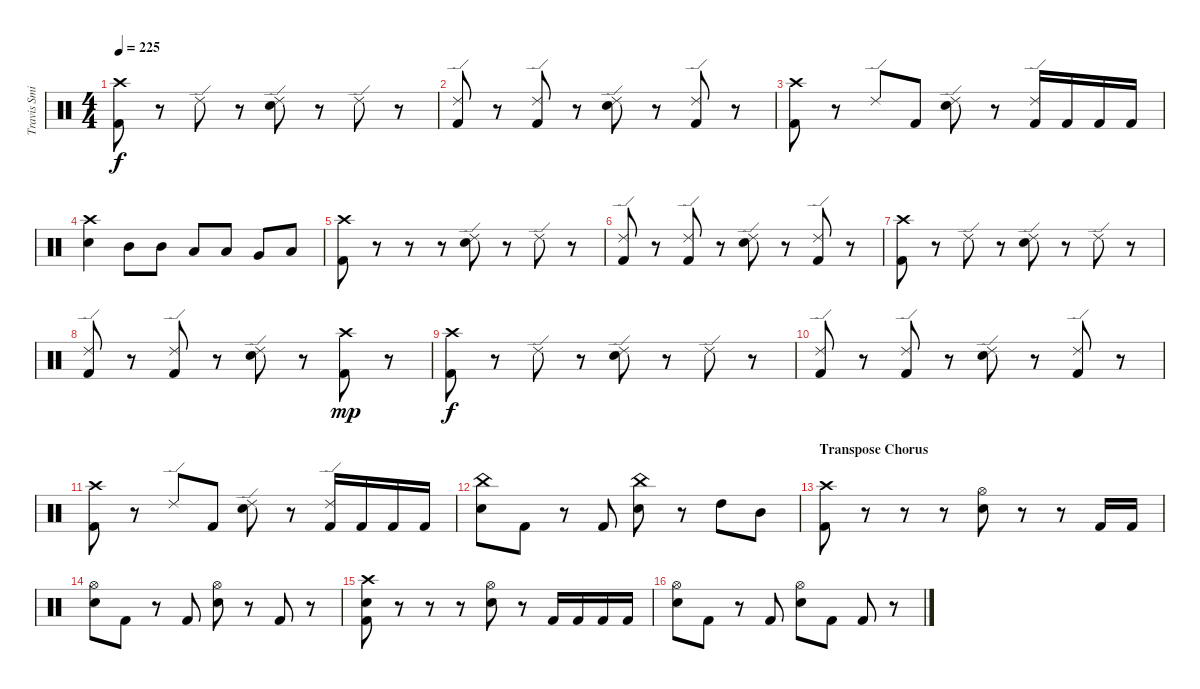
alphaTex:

\track ("Travis Smith" "Travis Smi") {instrument percussion}
\staff {score}
\articulation defaults
\ts (4 4)
\tempo 225
\clef neutral
\ks c
("Crash high (hit)" "Kick (hit) 2").8{dy f} r.8 "Ride (edge) 2".8 r.8 ("Ride (edge) 2" "Electric Snare (hit)").8 r.8 "Ride (edge) 2".8 r.8 |
("Ride (edge) 2" "Kick (hit) 2").8 r.8 ("Ride (edge) 2" "Kick (hit) 2").8 r.8 ("Ride (edge) 2" "Electric Snare (hit)").8 r.8 ("Ride (edge) 2" "Kick (hit) 2").8 r.8 |
("Crash high (hit)" "Kick (hit) 2").8 r.8 "Ride (edge) 2".8 "Kick (hit) 2".8 ("Ride (edge) 2" "Electric Snare (hit)").8 r.8 ("Ride (edge) 2" "Kick (hit) 2").16 "Kick (hit) 2".16 "Kick (hit) 2".16 "Kick (hit) 2".16 |
("Crash high (hit)" "Electric Snare (hit)").4 "Mid Tom (hit)".8 "Mid Tom (hit)".8 "Low Tom (hit)".8 "Low Tom (hit)".8 "Very Low Tom (hit)".8 "Low Floor Tom (hit)".8 |
("Crash high (hit)" "Kick (hit) 2").8 r.8 r.8 r.8 ("Ride (edge) 2" "Electric Snare (hit)").8 r.8 "Ride (edge) 2".8 r.8 |
("Ride (edge) 2" "Kick (hit) 2").8 r.8 ("Ride (edge) 2" "Kick (hit) 2").8 r.8 ("Ride (edge) 2" "Electric Snare (hit)").8 r.8 ("Ride (edge) 2" "Kick (hit) 2").8 r.8 |
("Crash high (hit)" "Kick (hit) 2").8 r.8 "Ride (edge) 2".8 r.8 ("Ride (edge) 2" "Electric Snare (hit)").8 r.8 "Ride (edge) 2".8 r.8 |
("Ride (edge) 2" "Kick (hit) 2").8 r.8 ("Ride (edge) 2" "Kick (hit) 2").8 r.8 ("Ride (edge) 2" "Electric Snare (hit)").8 r.8 ("Crash high (hit)" "Kick (hit) 2").8{dy mp} r.8 |
("Crash high (hit)" "Kick (hit) 2").8{dy f} r.8 "Ride (edge) 2".8 r.8 ("Ride (edge) 2" "Electric Snare (hit)").8 r.8 "Ride (edge) 2".8 r.8 |
("Ride (edge) 2" "Kick (hit) 2").8 r.8 ("Ride (edge) 2" "Kick (hit) 2").8 r.8 ("Ride (edge) 2" "Electric Snare (hit)").8 r.8 ("Ride (edge) 2" "Kick (hit) 2").8 r.8 |
("Crash high (hit)" "Kick (hit) 2").8 r.8 "Ride (edge) 2".8 "Kick (hit) 2".8 ("Ride (edge) 2" "Electric Snare (hit)").8 r.8 ("Ride (edge) 2" "Kick (hit) 2").16 "Kick (hit) 2".16 "Kick (hit) 2".16 "Kick (hit) 2".16 |
("China (hit)" "Electric Snare (hit)").8 "Kick (hit) 2".8 r.8 "Kick (hit) 2".8 ("China (hit)" "Electric Snare (hit)").8 r.8 "High Tom (hit)".8 "Mid Tom (hit)".8 |
\section ("" "Transpose Chorus")
("Crash high (hit)" "Kick (hit) 2").8 r.8 r.8 r.8 ("Hi-Hat (open)" "Electric Snare (hit)").8 r.8 r.8 "Kick (hit) 2".16 "Kick (hit) 2".16 |
("Hi-Hat (open)" "Electric Snare (hit)").8 "Kick (hit) 2".8 r.8 "Kick (hit) 2".8 ("Hi-Hat (open)" "Electric Snare (hit)").8 r.8 "Kick (hit) 2".8 r.8 |
("Crash high (hit)" "Electric Snare (hit)" "Kick (hit) 2").8 r.8 r.8 r.8 ("Hi-Hat (open)" "Electric Snare (hit)").8 r.8 "Kick (hit) 2".16 "Kick (hit) 2".16 "Kick (hit) 2".16 "Kick (hit) 2".16 |
("Hi-Hat (open)" "Electric Snare (hit)").8 "Kick (hit) 2".8 r.8 "Kick (hit) 2".8 ("Hi-Hat (open)" "Electric Snare (hit)").8 "Kick (hit) 2".8 "Kick (hit) 2".8 r.8
